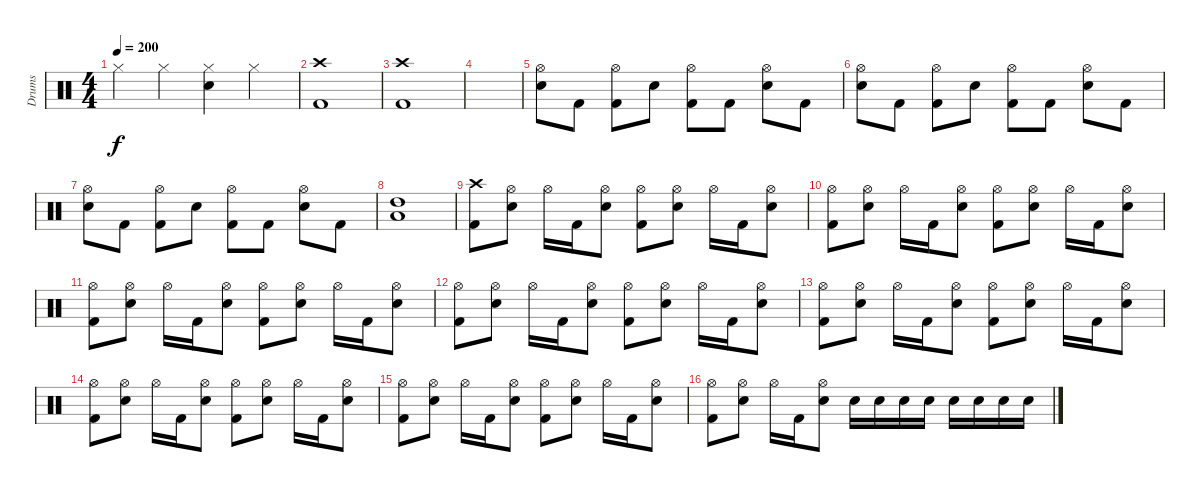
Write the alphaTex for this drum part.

\track ("Drums" "Drums") {instrument percussion}
\staff {score}
\articulation defaults
\ts (4 4)
\tempo 200
\clef neutral
\ks c "Hi-Hat (closed)".4{dy f} "Hi-Hat (closed)".4
("Hi-Hat (closed)" "Snare (hit) 2").4 "Hi-Hat (closed)".4 |
("Crash high (hit)" "Kick (hit) 2").1 |
("Crash high (hit)" "Kick (hit) 2").1 |
|
("Hi-Hat (open)" "Snare (hit) 2").8 "Kick (hit) 2".8 ("Hi-Hat (open)" "Kick (hit) 2").8 "Snare (hit) 2".8 ("Hi-Hat (open)" "Kick (hit) 2").8 "Kick (hit) 2".8 ("Hi-Hat (open)" "Snare (hit) 2").8 "Kick (hit) 2".8 |
("Hi-Hat (open)" "Snare (hit) 2").8 "Kick (hit) 2".8 ("Hi-Hat (open)" "Kick (hit) 2").8 "Snare (hit) 2".8 ("Hi-Hat (open)" "Kick (hit) 2").8 "Kick (hit) 2".8 ("Hi-Hat (open)" "Snare (hit) 2").8 "Kick (hit) 2".8 |
("Hi-Hat (open)" "Snare (hit) 2").8 "Kick (hit) 2".8 ("Hi-Hat (open)" "Kick (hit) 2").8 "Snare (hit) 2".8 ("Hi-Hat (open)" "Kick (hit) 2").8 "Kick (hit) 2".8 ("Hi-Hat (open)" "Snare (hit) 2").8 "Kick (hit) 2".8 |
("High Tom (hit)" "Low Tom (hit)").1 |
("Crash high (hit)" "Kick (hit) 2").8 ("Hi-Hat (open)" "Snare (hit) 2").8 "Hi-Hat (open)".16 "Kick (hit) 2".16 ("Hi-Hat (open)" "Snare (hit) 2").8 ("Hi-Hat (open)" "Kick (hit) 2").8 ("Hi-Hat (open)" "Snare (hit) 2").8 "Hi-Hat (open)".16 "Kick (hit) 2".16 ("Hi-Hat (open)" "Snare (hit) 2").8 |
("Hi-Hat (open)" "Kick (hit) 2").8 ("Hi-Hat (open)" "Snare (hit) 2").8 "Hi-Hat (open)".16 "Kick (hit) 2".16 ("Hi-Hat (open)" "Snare (hit) 2").8 ("Hi-Hat (open)" "Kick (hit) 2").8 ("Hi-Hat (open)" "Snare (hit) 2").8 "Hi-Hat (open)".16 "Kick (hit) 2".16 ("Hi-Hat (open)" "Snare (hit) 2").8 |
("Hi-Hat (open)" "Kick (hit) 2").8 ("Hi-Hat (open)" "Snare (hit) 2").8 "Hi-Hat (open)".16 "Kick (hit) 2".16 ("Hi-Hat (open)" "Snare (hit) 2").8 ("Hi-Hat (open)" "Kick (hit) 2").8 ("Hi-Hat (open)" "Snare (hit) 2").8 "Hi-Hat (open)".16 "Kick (hit) 2".16 ("Hi-Hat (open)" "Snare (hit) 2").8 |
("Hi-Hat (open)" "Kick (hit) 2").8 ("Hi-Hat (open)" "Snare (hit) 2").8 "Hi-Hat (open)".16 "Kick (hit) 2".16 ("Hi-Hat (open)" "Snare (hit) 2").8 ("Hi-Hat (open)" "Kick (hit) 2").8 ("Hi-Hat (open)" "Snare (hit) 2").8 "Hi-Hat (open)".16 "Kick (hit) 2".16 ("Hi-Hat (open)" "Snare (hit) 2").8 |
("Hi-Hat (open)" "Kick (hit) 2").8 ("Hi-Hat (open)" "Snare (hit) 2").8 "Hi-Hat (open)".16 "Kick (hit) 2".16 ("Hi-Hat (open)" "Snare (hit) 2").8 ("Hi-Hat (open)" "Kick (hit) 2").8 ("Hi-Hat (open)" "Snare (hit) 2").8 "Hi-Hat (open)".16 "Kick (hit) 2".16 ("Hi-Hat (open)" "Snare (hit) 2").8 |
("Hi-Hat (open)" "Kick (hit) 2").8 ("Hi-Hat (open)" "Snare (hit) 2").8 "Hi-Hat (open)".16 "Kick (hit) 2".16 ("Hi-Hat (open)" "Snare (hit) 2").8 ("Hi-Hat (open)" "Kick (hit) 2").8 ("Hi-Hat (open)" "Snare (hit) 2").8 "Hi-Hat (open)".16 "Kick (hit) 2".16 ("Hi-Hat (open)" "Snare (hit) 2").8 |
("Hi-Hat (open)" "Kick (hit) 2").8 ("Hi-Hat (open)" "Snare (hit) 2").8 "Hi-Hat (open)".16 "Kick (hit) 2".16 ("Hi-Hat (open)" "Snare (hit) 2").8 ("Hi-Hat (open)" "Kick (hit) 2").8 ("Hi-Hat (open)" "Snare (hit) 2").8 "Hi-Hat (open)".16 "Kick (hit) 2".16 ("Hi-Hat (open)" "Snare (hit) 2").8 |
("Hi-Hat (open)" "Kick (hit) 2").8 ("Hi-Hat (open)" "Snare (hit) 2").8 "Hi-Hat (open)".16 "Kick (hit) 2".16 ("Hi-Hat (open)" "Snare (hit) 2").8 "Snare (hit) 2".16 "Snare (hit) 2".16 "Snare (hit) 2".16 "Snare (hit) 2".16 "Snare (hit) 2".16 "Snare (hit) 2".16 "Snare (hit) 2".16 "Snare (hit) 2".16
